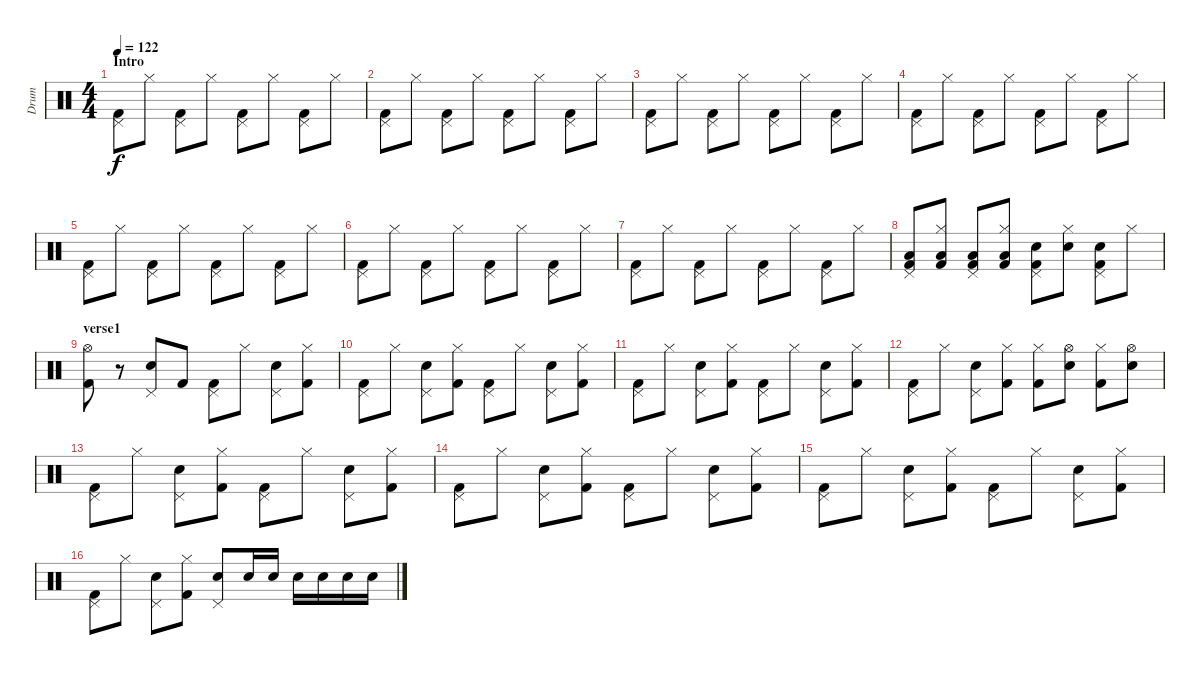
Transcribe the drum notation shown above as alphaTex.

\track ("Drum" "Drum") {instrument percussion}
\staff {score}
\articulation defaults
\ts (4 4)
\section ("" "Intro")
\tempo 122
\clef neutral
\ks c
("Pedal Hi-Hat (hit)" "Kick (hit) 2").8{dy f} "Hi-Hat (closed)".8 ("Pedal Hi-Hat (hit)" "Kick (hit) 2").8 "Hi-Hat (closed)".8 ("Pedal Hi-Hat (hit)" "Kick (hit) 2").8 "Hi-Hat (closed)".8 ("Pedal Hi-Hat (hit)" "Kick (hit) 2").8 "Hi-Hat (closed)".8 |
("Pedal Hi-Hat (hit)" "Kick (hit) 2").8 "Hi-Hat (closed)".8 ("Pedal Hi-Hat (hit)" "Kick (hit) 2").8 "Hi-Hat (closed)".8 ("Pedal Hi-Hat (hit)" "Kick (hit) 2").8 "Hi-Hat (closed)".8 ("Pedal Hi-Hat (hit)" "Kick (hit) 2").8 "Hi-Hat (closed)".8 |
("Pedal Hi-Hat (hit)" "Kick (hit) 2").8 "Hi-Hat (closed)".8 ("Pedal Hi-Hat (hit)" "Kick (hit) 2").8 "Hi-Hat (closed)".8 ("Pedal Hi-Hat (hit)" "Kick (hit) 2").8 "Hi-Hat (closed)".8 ("Pedal Hi-Hat (hit)" "Kick (hit) 2").8 "Hi-Hat (closed)".8 |
("Pedal Hi-Hat (hit)" "Kick (hit) 2").8 "Hi-Hat (closed)".8 ("Pedal Hi-Hat (hit)" "Kick (hit) 2").8 "Hi-Hat (closed)".8 ("Pedal Hi-Hat (hit)" "Kick (hit) 2").8 "Hi-Hat (closed)".8 ("Pedal Hi-Hat (hit)" "Kick (hit) 2").8 "Hi-Hat (closed)".8 |
("Pedal Hi-Hat (hit)" "Kick (hit) 2").8 "Hi-Hat (closed)".8 ("Pedal Hi-Hat (hit)" "Kick (hit) 2").8 "Hi-Hat (closed)".8 ("Pedal Hi-Hat (hit)" "Kick (hit) 2").8 "Hi-Hat (closed)".8 ("Pedal Hi-Hat (hit)" "Kick (hit) 2").8 "Hi-Hat (closed)".8 |
("Pedal Hi-Hat (hit)" "Kick (hit) 2").8 "Hi-Hat (closed)".8 ("Pedal Hi-Hat (hit)" "Kick (hit) 2").8 "Hi-Hat (closed)".8 ("Pedal Hi-Hat (hit)" "Kick (hit) 2").8 "Hi-Hat (closed)".8 ("Pedal Hi-Hat (hit)" "Kick (hit) 2").8 "Hi-Hat (closed)".8 |
("Pedal Hi-Hat (hit)" "Kick (hit) 2").8 "Hi-Hat (closed)".8 ("Pedal Hi-Hat (hit)" "Kick (hit) 2").8 "Hi-Hat (closed)".8 ("Pedal Hi-Hat (hit)" "Kick (hit) 2").8 "Hi-Hat (closed)".8 ("Pedal Hi-Hat (hit)" "Kick (hit) 2").8 "Hi-Hat (closed)".8 |
("Pedal Hi-Hat (hit)" "Low Tom (hit)" "Kick (hit) 2").8 ("Hi-Hat (closed)" "Low Tom (hit)" "Kick (hit) 2").8 ("Pedal Hi-Hat (hit)" "Low Tom (hit)" "Kick (hit) 2").8 ("Hi-Hat (closed)" "Low Tom (hit)" "Kick (hit) 2").8 ("Pedal Hi-Hat (hit)" "Electric Snare (hit)" "Kick (hit) 2").8 ("Hi-Hat (closed)" "Electric Snare (hit)").8 ("Pedal Hi-Hat (hit)" "Electric Snare (hit)" "Kick (hit) 2").8 "Hi-Hat (closed)".8 |
\section ("" "verse1")
("Hi-Hat (open)" "Kick (hit) 2").8 r.8 ("Pedal Hi-Hat (hit)" "Electric Snare (hit)").8 "Kick (hit) 2".8 ("Pedal Hi-Hat (hit)" "Kick (hit) 2").8 "Hi-Hat (closed)".8 ("Pedal Hi-Hat (hit)" "Electric Snare (hit)").8 ("Hi-Hat (closed)" "Kick (hit) 2").8 |
("Pedal Hi-Hat (hit)" "Kick (hit) 2").8 "Hi-Hat (closed)".8 ("Pedal Hi-Hat (hit)" "Electric Snare (hit)").8 ("Hi-Hat (closed)" "Kick (hit) 2").8 ("Pedal Hi-Hat (hit)" "Kick (hit) 2").8 "Hi-Hat (closed)".8 ("Pedal Hi-Hat (hit)" "Electric Snare (hit)").8 ("Hi-Hat (closed)" "Kick (hit) 2").8 |
("Pedal Hi-Hat (hit)" "Kick (hit) 2").8 "Hi-Hat (closed)".8 ("Pedal Hi-Hat (hit)" "Electric Snare (hit)").8 ("Hi-Hat (closed)" "Kick (hit) 2").8 ("Pedal Hi-Hat (hit)" "Kick (hit) 2").8 "Hi-Hat (closed)".8 ("Pedal Hi-Hat (hit)" "Electric Snare (hit)").8 ("Hi-Hat (closed)" "Kick (hit) 2").8 |
("Pedal Hi-Hat (hit)" "Kick (hit) 2").8 "Hi-Hat (closed)".8 ("Pedal Hi-Hat (hit)" "Electric Snare (hit)").8 ("Hi-Hat (closed)" "Kick (hit) 2").8 ("Hi-Hat (closed)" "Kick (hit) 2").8 ("Hi-Hat (open)" "Electric Snare (hit)").8 ("Hi-Hat (closed)" "Kick (hit) 2").8 ("Hi-Hat (open)" "Electric Snare (hit)").8 |
("Pedal Hi-Hat (hit)" "Kick (hit) 2").8 "Hi-Hat (closed)".8 ("Pedal Hi-Hat (hit)" "Electric Snare (hit)").8 ("Hi-Hat (closed)" "Kick (hit) 2").8 ("Pedal Hi-Hat (hit)" "Kick (hit) 2").8 "Hi-Hat (closed)".8 ("Pedal Hi-Hat (hit)" "Electric Snare (hit)").8 ("Hi-Hat (closed)" "Kick (hit) 2").8 |
("Pedal Hi-Hat (hit)" "Kick (hit) 2").8 "Hi-Hat (closed)".8 ("Pedal Hi-Hat (hit)" "Electric Snare (hit)").8 ("Hi-Hat (closed)" "Kick (hit) 2").8 ("Pedal Hi-Hat (hit)" "Kick (hit) 2").8 "Hi-Hat (closed)".8 ("Pedal Hi-Hat (hit)" "Electric Snare (hit)").8 ("Hi-Hat (closed)" "Kick (hit) 2").8 |
("Pedal Hi-Hat (hit)" "Kick (hit) 2").8 "Hi-Hat (closed)".8 ("Pedal Hi-Hat (hit)" "Electric Snare (hit)").8 ("Hi-Hat (closed)" "Kick (hit) 2").8 ("Pedal Hi-Hat (hit)" "Kick (hit) 2").8 "Hi-Hat (closed)".8 ("Pedal Hi-Hat (hit)" "Electric Snare (hit)").8 ("Hi-Hat (closed)" "Kick (hit) 2").8 |
("Pedal Hi-Hat (hit)" "Kick (hit) 2").8 "Hi-Hat (closed)".8 ("Pedal Hi-Hat (hit)" "Electric Snare (hit)").8 ("Hi-Hat (closed)" "Kick (hit) 2").8 ("Pedal Hi-Hat (hit)" "Electric Snare (hit)").8 "Electric Snare (hit)".16 "Electric Snare (hit)".16 "Electric Snare (hit)".16 "Electric Snare (hit)".16 "Electric Snare (hit)".16 "Electric Snare (hit)".16
